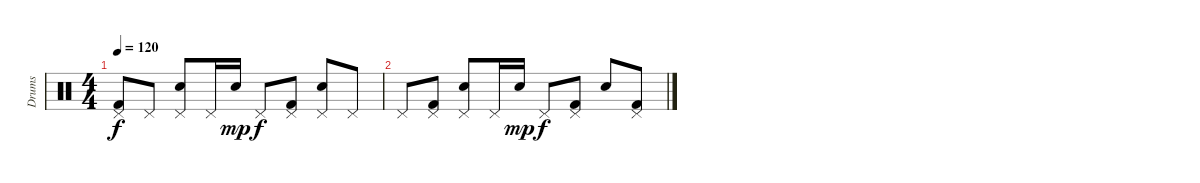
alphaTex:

\track ("Drums" "Drums") {instrument percussion}
\staff {score}
\articulation defaults
\ts (4 4)
\tempo 120
\clef neutral
\ks c
("Pedal Hi-Hat (hit)" "Kick (hit) 2").8{dy f} "Pedal Hi-Hat (hit)".8 ("Pedal Hi-Hat (hit)" "Electric Snare (hit)").8 "Pedal Hi-Hat (hit)".16 "Electric Snare (hit)".16{dy mp} "Pedal Hi-Hat (hit)".8{dy f} ("Pedal Hi-Hat (hit)" "Kick (hit) 2").8 ("Pedal Hi-Hat (hit)" "Electric Snare (hit)").8 "Pedal Hi-Hat (hit)".8 |
"Pedal Hi-Hat (hit)".8 ("Pedal Hi-Hat (hit)" "Kick (hit) 2").8 ("Pedal Hi-Hat (hit)" "Electric Snare (hit)").8 "Pedal Hi-Hat (hit)".16 "Electric Snare (hit)".16{dy mp} "Pedal Hi-Hat (hit)".8{dy f} ("Pedal Hi-Hat (hit)" "Kick (hit) 2").8 "Electric Snare (hit)".8 ("Pedal Hi-Hat (hit)" "Kick (hit) 2").8
